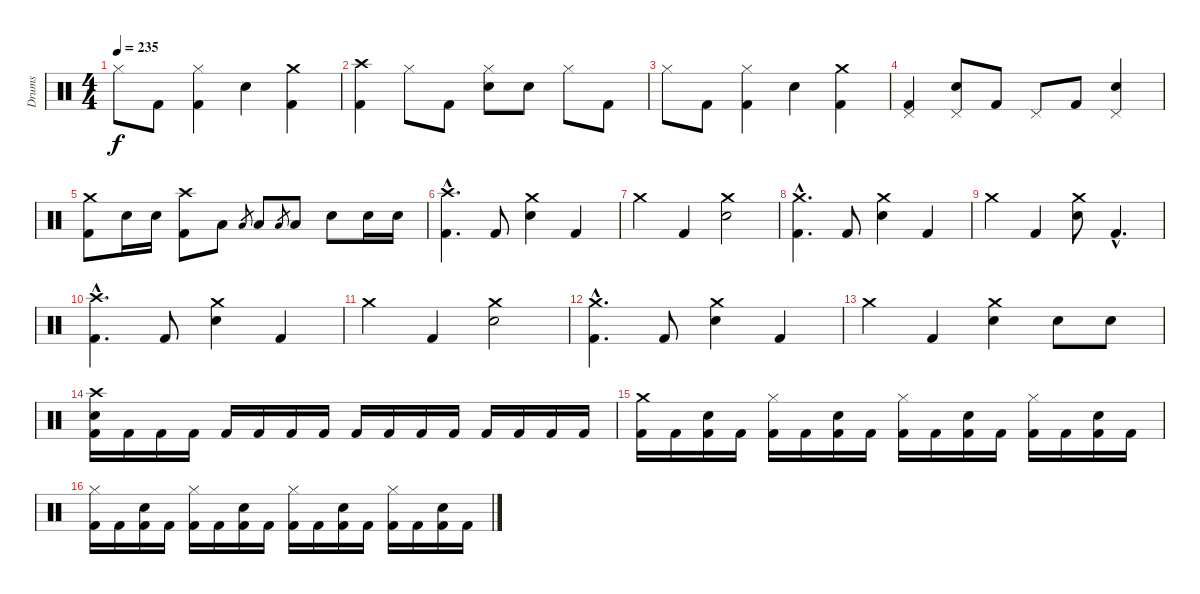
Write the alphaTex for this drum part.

\track ("Drums" "Drums") {instrument percussion}
\staff {score}
\articulation defaults
\ts (4 4)
\tempo 235
\clef neutral
\ks c "Hi-Hat (closed)".8{dy f} "Kick (hit) 2".8
("Hi-Hat (closed)" "Kick (hit) 2").4 "Electric Snare (hit)".4 ("Crash medium (hit)" "Kick (hit) 2").4 |
("Crash high (hit)" "Kick (hit) 2").4 "Hi-Hat (closed)".8 "Kick (hit) 2".8 ("Hi-Hat (closed)" "Electric Snare (hit)").8 "Electric Snare (hit)".8 "Hi-Hat (closed)".8 "Kick (hit) 2".8 |
"Hi-Hat (closed)".8 "Kick (hit) 2".8 ("Hi-Hat (closed)" "Kick (hit) 2").4 "Electric Snare (hit)".4 ("Crash medium (hit)" "Kick (hit) 2").4 |
("Pedal Hi-Hat (hit)" "Kick (hit) 2").4 ("Pedal Hi-Hat (hit)" "Electric Snare (hit)").8 "Kick (hit) 2".8 "Pedal Hi-Hat (hit)".8 "Kick (hit) 2".8 ("Pedal Hi-Hat (hit)" "Electric Snare (hit)").4 |
("Crash medium (hit)" "Kick (hit) 2").8 "Electric Snare (hit)".16 "Electric Snare (hit)".16 ("Crash high (hit)" "Kick (hit) 2").8 "Low Tom (hit)".8 "Low Tom (hit)".8{gr} "Low Tom (hit)".8 "Low Tom (hit)".8{gr} "Low Tom (hit)".8 "Electric Snare (hit)".8 "Electric Snare (hit)".16 "Electric Snare (hit)".16 |
("Crash high (hit)"{hac} "Kick (hit) 2"{hac}).4{d} "Kick (hit) 2".8 ("Crash medium (hit)" "Electric Snare (hit)").4 "Kick (hit) 2".4 |
"Crash medium (hit)".4 "Kick (hit) 2".4 ("Crash medium (hit)" "Electric Snare (hit)").2 |
("Crash medium (hit)"{hac} "Kick (hit) 2"{hac}).4{d} "Kick (hit) 2".8 ("Crash medium (hit)" "Electric Snare (hit)").4 "Kick (hit) 2".4 |
"Crash medium (hit)".4 "Kick (hit) 2".4 ("Crash medium (hit)" "Electric Snare (hit)").8 "Kick (hit) 2"{hac}.4{d} |
("Crash high (hit)"{hac} "Kick (hit) 2"{hac}).4{d} "Kick (hit) 2".8 ("Crash medium (hit)" "Electric Snare (hit)").4 "Kick (hit) 2".4 |
"Crash medium (hit)".4 "Kick (hit) 2".4 ("Crash medium (hit)" "Electric Snare (hit)").2 |
("Crash medium (hit)"{hac} "Kick (hit) 2"{hac}).4{d} "Kick (hit) 2".8 ("Crash medium (hit)" "Electric Snare (hit)").4 "Kick (hit) 2".4 |
"Crash medium (hit)".4 "Kick (hit) 2".4 ("Crash medium (hit)" "Electric Snare (hit)").4 "Electric Snare (hit)".8 "Electric Snare (hit)".8 |
("Crash high (hit)" "Electric Snare (hit)" "Kick (hit) 2").16 "Kick (hit) 2".16 "Kick (hit) 2".16 "Kick (hit) 2".16 "Kick (hit) 2".16 "Kick (hit) 2".16 "Kick (hit) 2".16 "Kick (hit) 2".16 "Kick (hit) 2".16 "Kick (hit) 2".16 "Kick (hit) 2".16 "Kick (hit) 2".16 "Kick (hit) 2".16 "Kick (hit) 2".16 "Kick (hit) 2".16 "Kick (hit) 2".16 |
("Crash medium (hit)" "Kick (hit) 2").16 "Kick (hit) 2".16 ("Electric Snare (hit)" "Kick (hit) 2").16 "Kick (hit) 2".16 ("Hi-Hat (closed)" "Kick (hit) 2").16 "Kick (hit) 2".16 ("Electric Snare (hit)" "Kick (hit) 2").16 "Kick (hit) 2".16 ("Hi-Hat (closed)" "Kick (hit) 2").16 "Kick (hit) 2".16 ("Electric Snare (hit)" "Kick (hit) 2").16 "Kick (hit) 2".16 ("Hi-Hat (closed)" "Kick (hit) 2").16 "Kick (hit) 2".16 ("Electric Snare (hit)" "Kick (hit) 2").16 "Kick (hit) 2".16 |
("Hi-Hat (closed)" "Kick (hit) 2").16 "Kick (hit) 2".16 ("Electric Snare (hit)" "Kick (hit) 2").16 "Kick (hit) 2".16 ("Hi-Hat (closed)" "Kick (hit) 2").16 "Kick (hit) 2".16 ("Electric Snare (hit)" "Kick (hit) 2").16 "Kick (hit) 2".16 ("Hi-Hat (closed)" "Kick (hit) 2").16 "Kick (hit) 2".16 ("Electric Snare (hit)" "Kick (hit) 2").16 "Kick (hit) 2".16 ("Hi-Hat (closed)" "Kick (hit) 2").16 "Kick (hit) 2".16 ("Electric Snare (hit)" "Kick (hit) 2").16 "Kick (hit) 2".16
